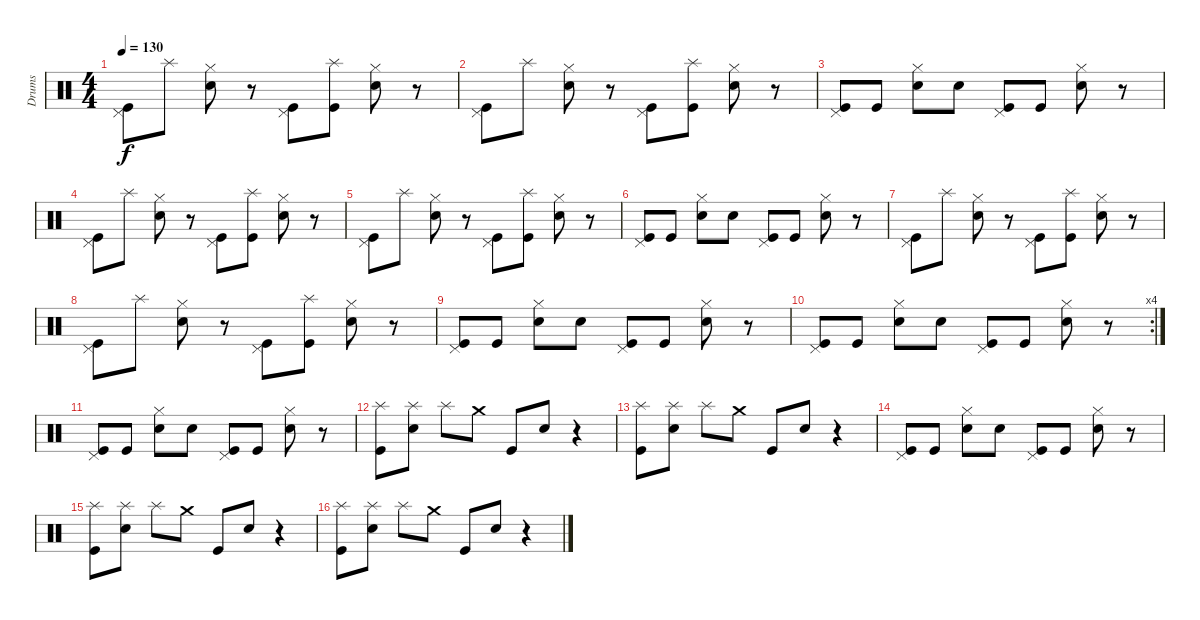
\track ("Drums" "Drums") {instrument percussion}
\staff {score}
\articulation defaults
\ts (4 4)
\tempo 130
\clef neutral
\ks c
("Pedal Hi-Hat (hit)" "Kick (hit)").8{dy f} "Splash (hit)".8 ("Hi-Hat (closed)" "Snare (hit) 2").8 r.8 ("Pedal Hi-Hat (hit)" "Kick (hit)").8 ("Splash (hit)" "Kick (hit)").8 ("Hi-Hat (closed)" "Snare (hit) 2").8 r.8 |
("Pedal Hi-Hat (hit)" "Kick (hit)").8 "Splash (hit)".8 ("Hi-Hat (closed)" "Snare (hit) 2").8 r.8 ("Pedal Hi-Hat (hit)" "Kick (hit)").8 ("Splash (hit)" "Kick (hit)").8 ("Hi-Hat (closed)" "Snare (hit) 2").8 r.8 |
("Pedal Hi-Hat (hit)" "Kick (hit)").8 "Kick (hit)".8 ("Hi-Hat (closed)" "Snare (hit) 2").8 "Snare (hit) 2".8 ("Pedal Hi-Hat (hit)" "Kick (hit)").8 "Kick (hit)".8 ("Hi-Hat (closed)" "Snare (hit) 2").8 r.8 |
("Pedal Hi-Hat (hit)" "Kick (hit)").8 "Splash (hit)".8 ("Hi-Hat (closed)" "Snare (hit) 2").8 r.8 ("Pedal Hi-Hat (hit)" "Kick (hit)").8 ("Splash (hit)" "Kick (hit)").8 ("Hi-Hat (closed)" "Snare (hit) 2").8 r.8 |
("Pedal Hi-Hat (hit)" "Kick (hit)").8 "Splash (hit)".8 ("Hi-Hat (closed)" "Snare (hit) 2").8 r.8 ("Pedal Hi-Hat (hit)" "Kick (hit)").8 ("Splash (hit)" "Kick (hit)").8 ("Hi-Hat (closed)" "Snare (hit) 2").8 r.8 |
("Pedal Hi-Hat (hit)" "Kick (hit)").8 "Kick (hit)".8 ("Hi-Hat (closed)" "Snare (hit) 2").8 "Snare (hit) 2".8 ("Pedal Hi-Hat (hit)" "Kick (hit)").8 "Kick (hit)".8 ("Hi-Hat (closed)" "Snare (hit) 2").8 r.8 |
("Pedal Hi-Hat (hit)" "Kick (hit)").8 "Splash (hit)".8 ("Hi-Hat (closed)" "Snare (hit) 2").8 r.8 ("Pedal Hi-Hat (hit)" "Kick (hit)").8 ("Splash (hit)" "Kick (hit)").8 ("Hi-Hat (closed)" "Snare (hit) 2").8 r.8 |
("Pedal Hi-Hat (hit)" "Kick (hit)").8 "Splash (hit)".8 ("Hi-Hat (closed)" "Snare (hit) 2").8 r.8 ("Pedal Hi-Hat (hit)" "Kick (hit)").8 ("Splash (hit)" "Kick (hit)").8 ("Hi-Hat (closed)" "Snare (hit) 2").8 r.8 |
("Pedal Hi-Hat (hit)" "Kick (hit)").8 "Kick (hit)".8 ("Hi-Hat (closed)" "Snare (hit) 2").8 "Snare (hit) 2".8 ("Pedal Hi-Hat (hit)" "Kick (hit)").8 "Kick (hit)".8 ("Hi-Hat (closed)" "Snare (hit) 2").8 r.8 |
\rc 4
("Pedal Hi-Hat (hit)" "Kick (hit)").8 "Kick (hit)".8 ("Hi-Hat (closed)" "Snare (hit) 2").8 "Snare (hit) 2".8 ("Pedal Hi-Hat (hit)" "Kick (hit)").8 "Kick (hit)".8 ("Hi-Hat (closed)" "Snare (hit) 2").8 r.8 |
("Pedal Hi-Hat (hit)" "Kick (hit)").8 "Kick (hit)".8 ("Hi-Hat (closed)" "Snare (hit) 2").8 "Snare (hit) 2".8 ("Pedal Hi-Hat (hit)" "Kick (hit)").8 "Kick (hit)".8 ("Hi-Hat (closed)" "Snare (hit) 2").8 r.8 |
("Splash (hit)" "Kick (hit)").8 ("Splash (hit)" "Snare (hit) 2").8 "Splash (hit)".8 "Crash medium (hit)".8 "Kick (hit)".8 "Snare (hit) 2".8 r.4 |
("Splash (hit)" "Kick (hit)").8 ("Splash (hit)" "Snare (hit) 2").8 "Splash (hit)".8 "Crash medium (hit)".8 "Kick (hit)".8 "Snare (hit) 2".8 r.4 |
("Pedal Hi-Hat (hit)" "Kick (hit)").8 "Kick (hit)".8 ("Hi-Hat (closed)" "Snare (hit) 2").8 "Snare (hit) 2".8 ("Pedal Hi-Hat (hit)" "Kick (hit)").8 "Kick (hit)".8 ("Hi-Hat (closed)" "Snare (hit) 2").8 r.8 |
("Splash (hit)" "Kick (hit)").8 ("Splash (hit)" "Snare (hit) 2").8 "Splash (hit)".8 "Crash medium (hit)".8 "Kick (hit)".8 "Snare (hit) 2".8 r.4 |
("Splash (hit)" "Kick (hit)").8 ("Splash (hit)" "Snare (hit) 2").8 "Splash (hit)".8 "Crash medium (hit)".8 "Kick (hit)".8 "Snare (hit) 2".8 r.4
